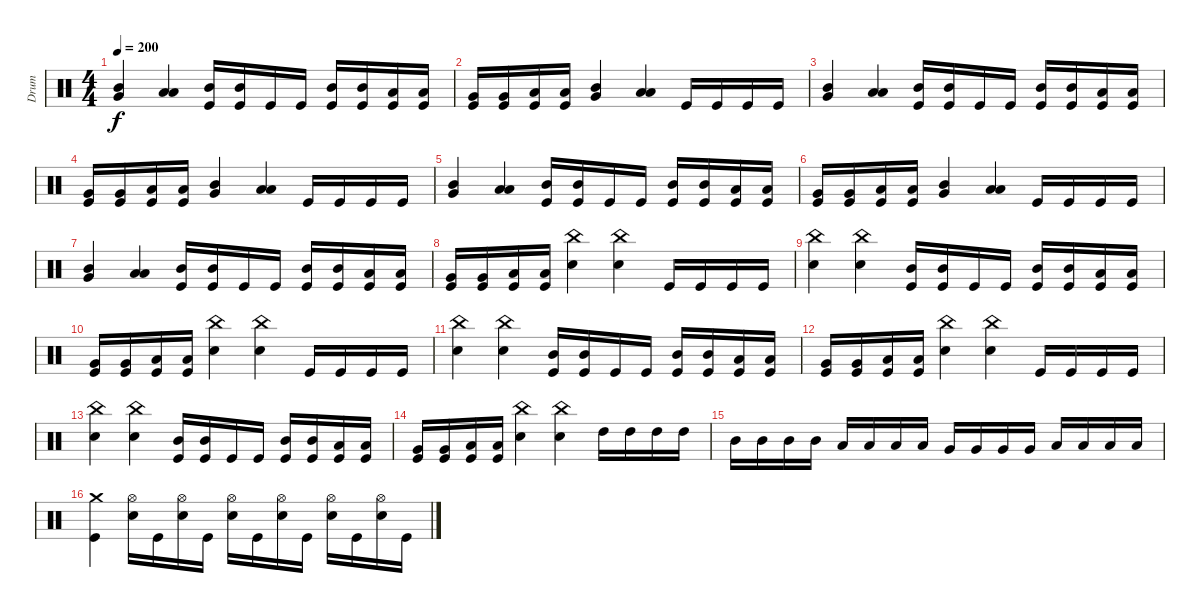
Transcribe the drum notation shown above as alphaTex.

\track ("Drum" "Drum") {instrument percussion}
\staff {score}
\articulation defaults
\ts (4 4)
\tempo 200
\clef neutral
\ks c
("Very Low Tom (hit)" "Mid Tom (hit)").4{dy f} ("Low Floor Tom (hit)" "Low Tom (hit)").4 ("Kick (hit)" "Mid Tom (hit)").16 ("Kick (hit)" "Mid Tom (hit)").16 "Kick (hit)".16 "Kick (hit)".16 ("Kick (hit)" "Mid Tom (hit)").16 ("Kick (hit)" "Mid Tom (hit)").16 ("Kick (hit)" "Low Tom (hit)").16 ("Kick (hit)" "Low Tom (hit)").16 |
("Kick (hit)" "Very Low Tom (hit)").16 ("Kick (hit)" "Very Low Tom (hit)").16 ("Kick (hit)" "Low Floor Tom (hit)").16 ("Kick (hit)" "Low Floor Tom (hit)").16 ("Very Low Tom (hit)" "Mid Tom (hit)").4 ("Low Floor Tom (hit)" "Low Tom (hit)").4 "Kick (hit)".16 "Kick (hit)".16 "Kick (hit)".16 "Kick (hit)".16 |
("Very Low Tom (hit)" "Mid Tom (hit)").4 ("Low Floor Tom (hit)" "Low Tom (hit)").4 ("Kick (hit)" "Mid Tom (hit)").16 ("Kick (hit)" "Mid Tom (hit)").16 "Kick (hit)".16 "Kick (hit)".16 ("Kick (hit)" "Mid Tom (hit)").16 ("Kick (hit)" "Mid Tom (hit)").16 ("Kick (hit)" "Low Tom (hit)").16 ("Kick (hit)" "Low Tom (hit)").16 |
("Kick (hit)" "Very Low Tom (hit)").16 ("Kick (hit)" "Very Low Tom (hit)").16 ("Kick (hit)" "Low Floor Tom (hit)").16 ("Kick (hit)" "Low Floor Tom (hit)").16 ("Very Low Tom (hit)" "Mid Tom (hit)").4 ("Low Floor Tom (hit)" "Low Tom (hit)").4 "Kick (hit)".16 "Kick (hit)".16 "Kick (hit)".16 "Kick (hit)".16 |
("Very Low Tom (hit)" "Mid Tom (hit)").4 ("Low Floor Tom (hit)" "Low Tom (hit)").4 ("Kick (hit)" "Mid Tom (hit)").16 ("Kick (hit)" "Mid Tom (hit)").16 "Kick (hit)".16 "Kick (hit)".16 ("Kick (hit)" "Mid Tom (hit)").16 ("Kick (hit)" "Mid Tom (hit)").16 ("Kick (hit)" "Low Tom (hit)").16 ("Kick (hit)" "Low Tom (hit)").16 |
("Kick (hit)" "Very Low Tom (hit)").16 ("Kick (hit)" "Very Low Tom (hit)").16 ("Kick (hit)" "Low Floor Tom (hit)").16 ("Kick (hit)" "Low Floor Tom (hit)").16 ("Very Low Tom (hit)" "Mid Tom (hit)").4 ("Low Floor Tom (hit)" "Low Tom (hit)").4 "Kick (hit)".16 "Kick (hit)".16 "Kick (hit)".16 "Kick (hit)".16 |
("Very Low Tom (hit)" "Mid Tom (hit)").4 ("Low Floor Tom (hit)" "Low Tom (hit)").4 ("Kick (hit)" "Mid Tom (hit)").16 ("Kick (hit)" "Mid Tom (hit)").16 "Kick (hit)".16 "Kick (hit)".16 ("Kick (hit)" "Mid Tom (hit)").16 ("Kick (hit)" "Mid Tom (hit)").16 ("Kick (hit)" "Low Tom (hit)").16 ("Kick (hit)" "Low Tom (hit)").16 |
("Kick (hit)" "Very Low Tom (hit)").16 ("Kick (hit)" "Very Low Tom (hit)").16 ("Kick (hit)" "Low Floor Tom (hit)").16 ("Kick (hit)" "Low Floor Tom (hit)").16 ("Electric Snare (hit)" "China (hit)").4 ("Electric Snare (hit)" "China (hit)").4 "Kick (hit)".16 "Kick (hit)".16 "Kick (hit)".16 "Kick (hit)".16 |
("Electric Snare (hit)" "China (hit)").4 ("Electric Snare (hit)" "China (hit)").4 ("Kick (hit)" "Mid Tom (hit)").16 ("Kick (hit)" "Mid Tom (hit)").16 "Kick (hit)".16 "Kick (hit)".16 ("Kick (hit)" "Mid Tom (hit)").16 ("Kick (hit)" "Mid Tom (hit)").16 ("Kick (hit)" "Low Tom (hit)").16 ("Kick (hit)" "Low Tom (hit)").16 |
("Kick (hit)" "Very Low Tom (hit)").16 ("Kick (hit)" "Very Low Tom (hit)").16 ("Kick (hit)" "Low Floor Tom (hit)").16 ("Kick (hit)" "Low Floor Tom (hit)").16 ("Electric Snare (hit)" "China (hit)").4 ("Electric Snare (hit)" "China (hit)").4 "Kick (hit)".16 "Kick (hit)".16 "Kick (hit)".16 "Kick (hit)".16 |
("Electric Snare (hit)" "China (hit)").4 ("Electric Snare (hit)" "China (hit)").4 ("Kick (hit)" "Mid Tom (hit)").16 ("Kick (hit)" "Mid Tom (hit)").16 "Kick (hit)".16 "Kick (hit)".16 ("Kick (hit)" "Mid Tom (hit)").16 ("Kick (hit)" "Mid Tom (hit)").16 ("Kick (hit)" "Low Tom (hit)").16 ("Kick (hit)" "Low Tom (hit)").16 |
("Kick (hit)" "Very Low Tom (hit)").16 ("Kick (hit)" "Very Low Tom (hit)").16 ("Kick (hit)" "Low Floor Tom (hit)").16 ("Kick (hit)" "Low Floor Tom (hit)").16 ("Electric Snare (hit)" "China (hit)").4 ("Electric Snare (hit)" "China (hit)").4 "Kick (hit)".16 "Kick (hit)".16 "Kick (hit)".16 "Kick (hit)".16 |
("Electric Snare (hit)" "China (hit)").4 ("Electric Snare (hit)" "China (hit)").4 ("Kick (hit)" "Mid Tom (hit)").16 ("Kick (hit)" "Mid Tom (hit)").16 "Kick (hit)".16 "Kick (hit)".16 ("Kick (hit)" "Mid Tom (hit)").16 ("Kick (hit)" "Mid Tom (hit)").16 ("Kick (hit)" "Low Tom (hit)").16 ("Kick (hit)" "Low Tom (hit)").16 |
("Kick (hit)" "Very Low Tom (hit)").16 ("Kick (hit)" "Very Low Tom (hit)").16 ("Kick (hit)" "Low Floor Tom (hit)").16 ("Kick (hit)" "Low Floor Tom (hit)").16 ("Electric Snare (hit)" "China (hit)").4 ("Electric Snare (hit)" "China (hit)").4 "High Tom (hit)".16 "High Tom (hit)".16 "High Tom (hit)".16 "High Tom (hit)".16 |
"Mid Tom (hit)".16 "Mid Tom (hit)".16 "Mid Tom (hit)".16 "Mid Tom (hit)".16 "Low Tom (hit)".16 "Low Tom (hit)".16 "Low Tom (hit)".16 "Low Tom (hit)".16 "Very Low Tom (hit)".16 "Very Low Tom (hit)".16 "Very Low Tom (hit)".16 "Very Low Tom (hit)".16 "Low Floor Tom (hit)".16 "Low Floor Tom (hit)".16 "Low Floor Tom (hit)".16 "Low Floor Tom (hit)".16 |
("Kick (hit)" "Crash medium (hit)").4 ("Electric Snare (hit)" "Hi-Hat (open)").16 "Kick (hit)".16 ("Electric Snare (hit)" "Hi-Hat (open)").16 "Kick (hit)".16 ("Electric Snare (hit)" "Hi-Hat (open)").16 "Kick (hit)".16 ("Electric Snare (hit)" "Hi-Hat (open)").16 "Kick (hit)".16 ("Electric Snare (hit)" "Hi-Hat (open)").16 "Kick (hit)".16 ("Electric Snare (hit)" "Hi-Hat (open)").16 "Kick (hit)".16
